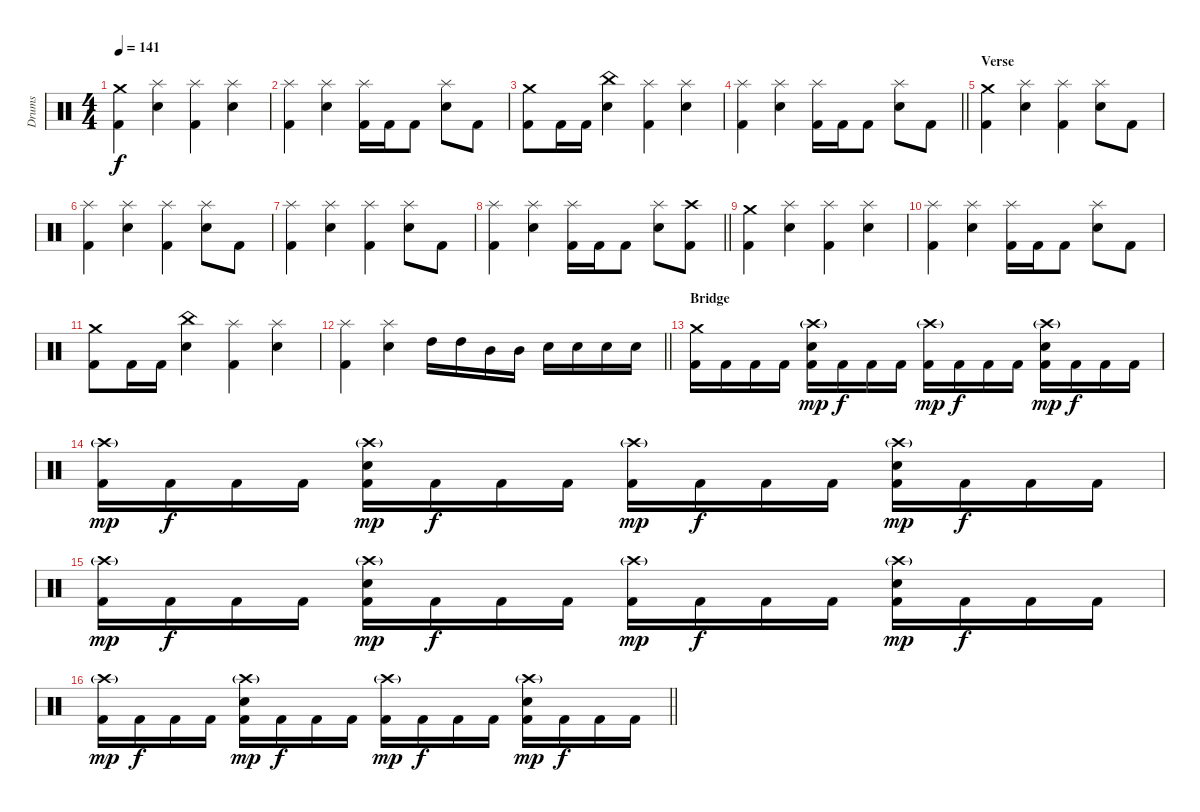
\track ("Drums" "Drums") {instrument percussion}
\staff {score}
\articulation defaults
\ts (4 4)
\section ("" "")
\tempo 141
\clef neutral
\ks c
("Kick (hit) 2" "Crash medium (hit)").4{dy f} ("Snare (hit) 2" "Splash (hit)").4 ("Kick (hit) 2" "Splash (hit)").4 ("Snare (hit) 2" "Splash (hit)").4 |
("Kick (hit) 2" "Splash (hit)").4 ("Snare (hit) 2" "Splash (hit)").4 ("Kick (hit) 2" "Splash (hit)").16 "Kick (hit) 2".16 "Kick (hit) 2".8 ("Snare (hit) 2" "Splash (hit)").8 "Kick (hit) 2".8 |
("Kick (hit) 2" "Crash medium (hit)").8 "Kick (hit) 2".16 "Kick (hit) 2".16 ("Snare (hit) 2" "China (hit)").4 ("Kick (hit) 2" "Splash (hit)").4 ("Snare (hit) 2" "Splash (hit)").4 |
\barLineRight lightlight
("Kick (hit) 2" "Splash (hit)").4 ("Snare (hit) 2" "Splash (hit)").4 ("Kick (hit) 2" "Splash (hit)").16 "Kick (hit) 2".16 "Kick (hit) 2".8 ("Snare (hit) 2" "Splash (hit)").8 "Kick (hit) 2".8 |
\section ("" "Verse")
("Kick (hit) 2" "Crash medium (hit)").4 ("Snare (hit) 2" "Splash (hit)").4 ("Kick (hit) 2" "Splash (hit)").4 ("Snare (hit) 2" "Splash (hit)").8 "Kick (hit) 2".8 |
("Kick (hit) 2" "Splash (hit)").4 ("Snare (hit) 2" "Splash (hit)").4 ("Kick (hit) 2" "Splash (hit)").4 ("Snare (hit) 2" "Splash (hit)").8 "Kick (hit) 2".8 |
("Kick (hit) 2" "Splash (hit)").4 ("Snare (hit) 2" "Splash (hit)").4 ("Kick (hit) 2" "Splash (hit)").4 ("Snare (hit) 2" "Splash (hit)").8 "Kick (hit) 2".8 |
\barLineRight lightlight
("Kick (hit) 2" "Splash (hit)").4 ("Snare (hit) 2" "Splash (hit)").4 ("Kick (hit) 2" "Splash (hit)").16 "Kick (hit) 2".16 "Kick (hit) 2".8 ("Snare (hit) 2" "Splash (hit)").8 ("Kick (hit) 2" "Crash high (hit)").8 |
\section ("" "")
("Kick (hit) 2" "Crash medium (hit)").4 ("Snare (hit) 2" "Splash (hit)").4 ("Kick (hit) 2" "Splash (hit)").4 ("Snare (hit) 2" "Splash (hit)").4 |
("Kick (hit) 2" "Splash (hit)").4 ("Snare (hit) 2" "Splash (hit)").4 ("Kick (hit) 2" "Splash (hit)").16 "Kick (hit) 2".16 "Kick (hit) 2".8 ("Snare (hit) 2" "Splash (hit)").8 "Kick (hit) 2".8 |
("Kick (hit) 2" "Crash medium (hit)").8 "Kick (hit) 2".16 "Kick (hit) 2".16 ("Snare (hit) 2" "China (hit)").4 ("Kick (hit) 2" "Splash (hit)").4 ("Snare (hit) 2" "Splash (hit)").4 |
\barLineRight lightlight
("Kick (hit) 2" "Splash (hit)").4 ("Snare (hit) 2" "Splash (hit)").4 "High Tom (hit)".16 "High Tom (hit)".16 "Mid Tom (hit)".16 "Mid Tom (hit)".16 "Snare (hit) 2".16 "Snare (hit) 2".16 "Snare (hit) 2".16 "Snare (hit) 2".16 |
\section ("" "Bridge")
("Kick (hit) 2" "Crash medium (hit)").16 "Kick (hit) 2".16 "Kick (hit) 2".16 "Kick (hit) 2".16 ("Kick (hit) 2" "Snare (hit) 2" "Crash high (hit)"{g}).16{dy mp} "Kick (hit) 2".16{dy f} "Kick (hit) 2".16 "Kick (hit) 2".16 ("Kick (hit) 2" "Crash high (hit)"{g}).16{dy mp} "Kick (hit) 2".16{dy f} "Kick (hit) 2".16 "Kick (hit) 2".16 ("Kick (hit) 2" "Snare (hit) 2" "Crash high (hit)"{g}).16{dy mp} "Kick (hit) 2".16{dy f} "Kick (hit) 2".16 "Kick (hit) 2".16 |
("Kick (hit) 2" "Crash high (hit)"{g}).16{dy mp} "Kick (hit) 2".16{dy f} "Kick (hit) 2".16 "Kick (hit) 2".16 ("Kick (hit) 2" "Snare (hit) 2" "Crash high (hit)"{g}).16{dy mp} "Kick (hit) 2".16{dy f} "Kick (hit) 2".16 "Kick (hit) 2".16 ("Kick (hit) 2" "Crash high (hit)"{g}).16{dy mp} "Kick (hit) 2".16{dy f} "Kick (hit) 2".16 "Kick (hit) 2".16 ("Kick (hit) 2" "Snare (hit) 2" "Crash high (hit)"{g}).16{dy mp} "Kick (hit) 2".16{dy f} "Kick (hit) 2".16 "Kick (hit) 2".16 |
("Kick (hit) 2" "Crash high (hit)"{g}).16{dy mp} "Kick (hit) 2".16{dy f} "Kick (hit) 2".16 "Kick (hit) 2".16 ("Kick (hit) 2" "Snare (hit) 2" "Crash high (hit)"{g}).16{dy mp} "Kick (hit) 2".16{dy f} "Kick (hit) 2".16 "Kick (hit) 2".16 ("Kick (hit) 2" "Crash high (hit)"{g}).16{dy mp} "Kick (hit) 2".16{dy f} "Kick (hit) 2".16 "Kick (hit) 2".16 ("Kick (hit) 2" "Snare (hit) 2" "Crash high (hit)"{g}).16{dy mp} "Kick (hit) 2".16{dy f} "Kick (hit) 2".16 "Kick (hit) 2".16 |
\barLineRight lightlight
("Kick (hit) 2" "Crash high (hit)"{g}).16{dy mp} "Kick (hit) 2".16{dy f} "Kick (hit) 2".16 "Kick (hit) 2".16 ("Kick (hit) 2" "Snare (hit) 2" "Crash high (hit)"{g}).16{dy mp} "Kick (hit) 2".16{dy f} "Kick (hit) 2".16 "Kick (hit) 2".16 ("Kick (hit) 2" "Crash high (hit)"{g}).16{dy mp} "Kick (hit) 2".16{dy f} "Kick (hit) 2".16 "Kick (hit) 2".16 ("Kick (hit) 2" "Snare (hit) 2" "Crash high (hit)"{g}).16{dy mp} "Kick (hit) 2".16{dy f} "Kick (hit) 2".16 "Kick (hit) 2".16
